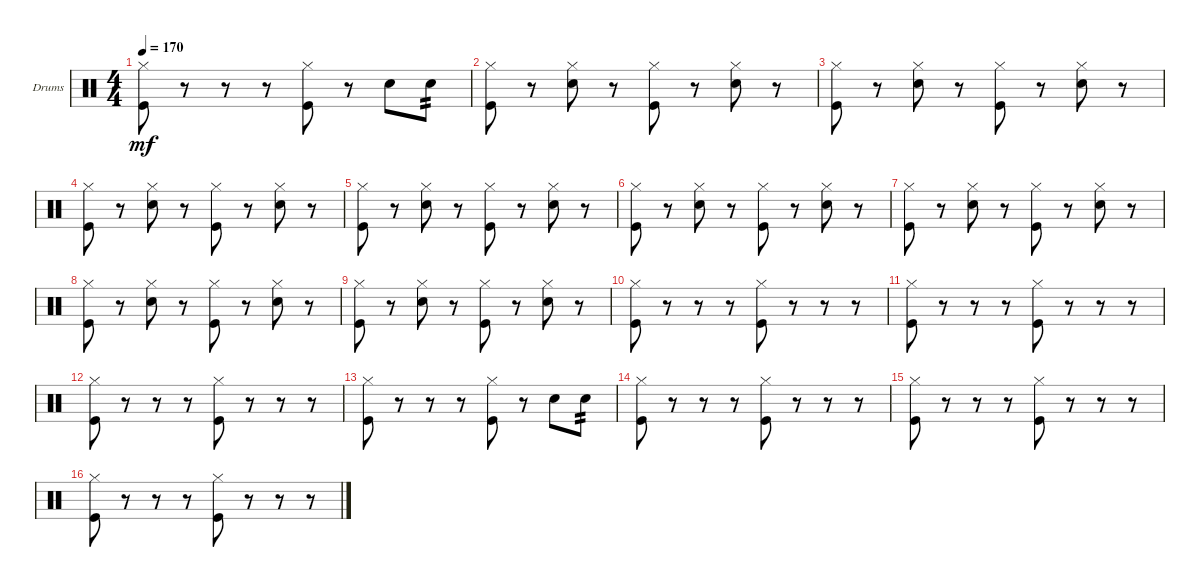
\defaultSystemsLayout 4
\bracketExtendMode groupsimilarinstruments
\firstSystemTrackNameOrientation horizontal
\otherSystemsTrackNameOrientation horizontal
\track ("Drumkit" "Drums") {instrument percussion}
\staff {score}
\articulation defaults
\ts (4 4)
\tempo 170
\clef neutral
\ks c
("Kick (hit)" "Hi-Hat (closed)").8{dy mf} r.8 r.8 r.8 ("Kick (hit)" "Hi-Hat (closed)").8 r.8 "Snare (hit) 2".8 "Snare (hit) 2".8{tp 2} |
("Kick (hit)" "Hi-Hat (closed)").8 r.8 ("Snare (hit) 2" "Hi-Hat (closed)").8 r.8 ("Kick (hit)" "Hi-Hat (closed)").8 r.8 ("Snare (hit) 2" "Hi-Hat (closed)").8 r.8 |
("Kick (hit)" "Hi-Hat (closed)").8 r.8 ("Snare (hit) 2" "Hi-Hat (closed)").8 r.8 ("Kick (hit)" "Hi-Hat (closed)").8 r.8 ("Snare (hit) 2" "Hi-Hat (closed)").8 r.8 |
("Kick (hit)" "Hi-Hat (closed)").8 r.8 ("Snare (hit) 2" "Hi-Hat (closed)").8 r.8 ("Kick (hit)" "Hi-Hat (closed)").8 r.8 ("Snare (hit) 2" "Hi-Hat (closed)").8 r.8 |
("Kick (hit)" "Hi-Hat (closed)").8 r.8 ("Snare (hit) 2" "Hi-Hat (closed)").8 r.8 ("Kick (hit)" "Hi-Hat (closed)").8 r.8 ("Snare (hit) 2" "Hi-Hat (closed)").8 r.8 |
("Kick (hit)" "Hi-Hat (closed)").8 r.8 ("Snare (hit) 2" "Hi-Hat (closed)").8 r.8 ("Kick (hit)" "Hi-Hat (closed)").8 r.8 ("Snare (hit) 2" "Hi-Hat (closed)").8 r.8 |
("Kick (hit)" "Hi-Hat (closed)").8 r.8 ("Snare (hit) 2" "Hi-Hat (closed)").8 r.8 ("Kick (hit)" "Hi-Hat (closed)").8 r.8 ("Snare (hit) 2" "Hi-Hat (closed)").8 r.8 |
("Kick (hit)" "Hi-Hat (closed)").8 r.8 ("Snare (hit) 2" "Hi-Hat (closed)").8 r.8 ("Kick (hit)" "Hi-Hat (closed)").8 r.8 ("Snare (hit) 2" "Hi-Hat (closed)").8 r.8 |
("Kick (hit)" "Hi-Hat (closed)").8 r.8 ("Snare (hit) 2" "Hi-Hat (closed)").8 r.8 ("Kick (hit)" "Hi-Hat (closed)").8 r.8 ("Snare (hit) 2" "Hi-Hat (closed)").8 r.8 |
("Kick (hit)" "Hi-Hat (closed)").8 r.8 r.8 r.8 ("Kick (hit)" "Hi-Hat (closed)").8 r.8 r.8 r.8 |
("Kick (hit)" "Hi-Hat (closed)").8 r.8 r.8 r.8 ("Kick (hit)" "Hi-Hat (closed)").8 r.8 r.8 r.8 |
("Kick (hit)" "Hi-Hat (closed)").8 r.8 r.8 r.8 ("Kick (hit)" "Hi-Hat (closed)").8 r.8 r.8 r.8 |
("Kick (hit)" "Hi-Hat (closed)").8 r.8 r.8 r.8 ("Kick (hit)" "Hi-Hat (closed)").8 r.8 "Snare (hit) 2".8 "Snare (hit) 2".8{tp 2} |
("Kick (hit)" "Hi-Hat (closed)").8 r.8 r.8 r.8 ("Kick (hit)" "Hi-Hat (closed)").8 r.8 r.8 r.8 |
("Kick (hit)" "Hi-Hat (closed)").8 r.8 r.8 r.8 ("Kick (hit)" "Hi-Hat (closed)").8 r.8 r.8 r.8 |
("Kick (hit)" "Hi-Hat (closed)").8 r.8 r.8 r.8 ("Kick (hit)" "Hi-Hat (closed)").8 r.8 r.8 r.8
